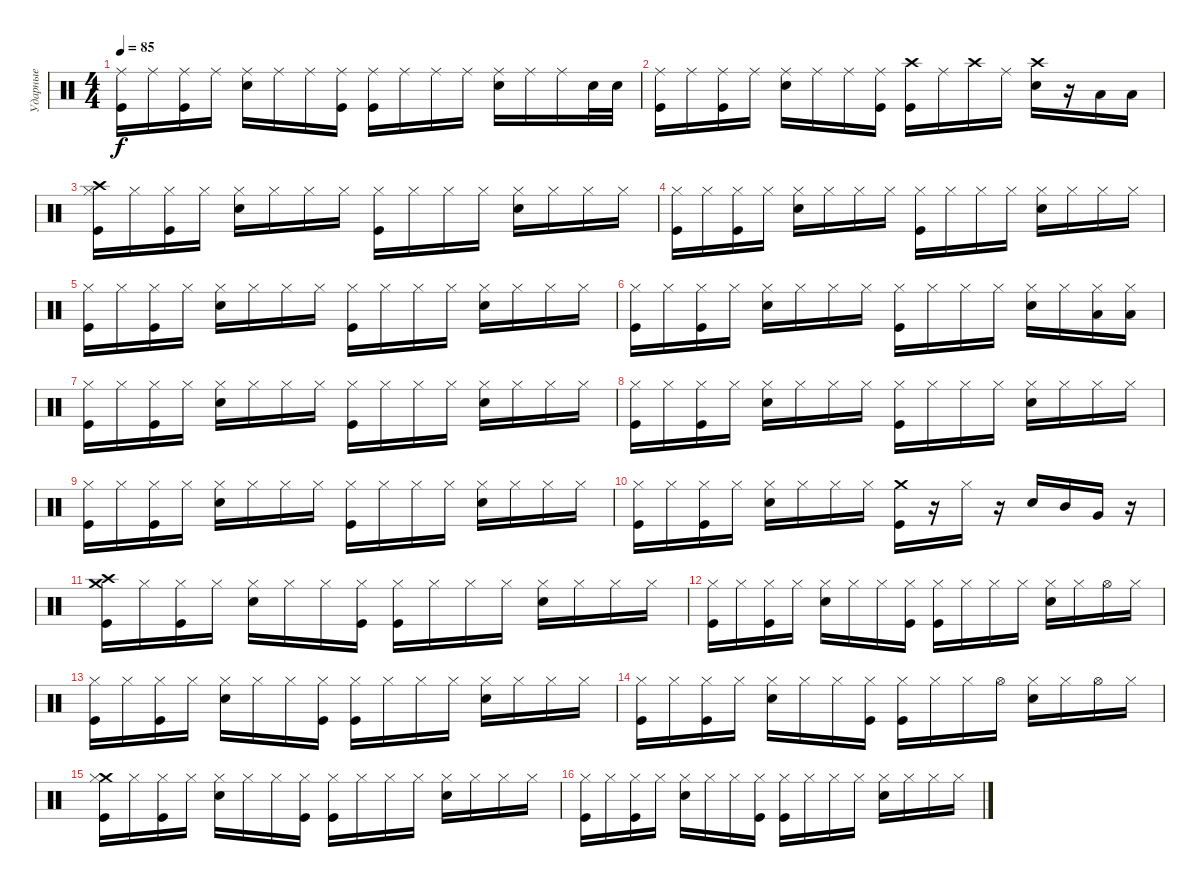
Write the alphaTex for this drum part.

\track ("Ударные" "Ударные") {instrument percussion}
\staff {score}
\articulation defaults
\ts (4 4)
\tempo 85
\clef neutral
\ks c
("Ride (middle)" "Kick (hit)").16{dy f} "Ride (middle)".16 ("Ride (middle)" "Kick (hit)").16 "Ride (middle)".16 ("Ride (middle)" "Electric Snare (hit)").16 "Ride (middle)".16 "Ride (middle)".16 ("Ride (middle)" "Kick (hit)").16 ("Ride (middle)" "Kick (hit)").16 "Ride (middle)".16 "Ride (middle)".16 "Ride (middle)".16 ("Ride (middle)" "Electric Snare (hit)").16 "Ride (middle)".16 "Ride (middle)".16 "Electric Snare (hit)".32 "Electric Snare (hit)".32 |
("Ride (middle)" "Kick (hit)").16 "Ride (middle)".16 ("Ride (middle)" "Kick (hit)").16 "Ride (middle)".16 ("Ride (middle)" "Electric Snare (hit)").16 "Ride (middle)".16 "Ride (middle)".16 ("Ride (middle)" "Kick (hit)").16 ("Crash high (hit)" "Kick (hit)").16 "Ride (middle)".16 "Crash high (hit)".16 "Ride (middle)".16 ("Crash high (hit)" "Electric Snare (hit)").16 r.16 "Low Floor Tom (hit)".16 "Low Floor Tom (hit)".16 |
("Crash high (hit)" "Hi-Hat (closed)" "Kick (hit)").16 "Hi-Hat (closed)".16 ("Hi-Hat (closed)" "Kick (hit)").16 "Hi-Hat (closed)".16 ("Hi-Hat (closed)" "Electric Snare (hit)").16 "Hi-Hat (closed)".16 "Hi-Hat (closed)".16 "Hi-Hat (closed)".16 ("Hi-Hat (closed)" "Kick (hit)").16 "Hi-Hat (closed)".16 "Hi-Hat (closed)".16 "Hi-Hat (closed)".16 ("Hi-Hat (closed)" "Electric Snare (hit)").16 "Hi-Hat (closed)".16 "Hi-Hat (closed)".16 "Hi-Hat (closed)".16 |
("Hi-Hat (closed)" "Kick (hit)").16 "Hi-Hat (closed)".16 ("Hi-Hat (closed)" "Kick (hit)").16 "Hi-Hat (closed)".16 ("Hi-Hat (closed)" "Electric Snare (hit)").16 "Hi-Hat (closed)".16 "Hi-Hat (closed)".16 "Hi-Hat (closed)".16 ("Hi-Hat (closed)" "Kick (hit)").16 "Hi-Hat (closed)".16 "Hi-Hat (closed)".16 "Hi-Hat (closed)".16 ("Hi-Hat (closed)" "Electric Snare (hit)").16 "Hi-Hat (closed)".16 "Hi-Hat (closed)".16 "Hi-Hat (closed)".16 |
("Hi-Hat (closed)" "Kick (hit)").16 "Hi-Hat (closed)".16 ("Hi-Hat (closed)" "Kick (hit)").16 "Hi-Hat (closed)".16 ("Hi-Hat (closed)" "Electric Snare (hit)").16 "Hi-Hat (closed)".16 "Hi-Hat (closed)".16 "Hi-Hat (closed)".16 ("Hi-Hat (closed)" "Kick (hit)").16 "Hi-Hat (closed)".16 "Hi-Hat (closed)".16 "Hi-Hat (closed)".16 ("Hi-Hat (closed)" "Electric Snare (hit)").16 "Hi-Hat (closed)".16 "Hi-Hat (closed)".16 "Hi-Hat (closed)".16 |
("Hi-Hat (closed)" "Kick (hit)").16 "Hi-Hat (closed)".16 ("Hi-Hat (closed)" "Kick (hit)").16 "Hi-Hat (closed)".16 ("Hi-Hat (closed)" "Electric Snare (hit)").16 "Hi-Hat (closed)".16 "Hi-Hat (closed)".16 "Hi-Hat (closed)".16 ("Hi-Hat (closed)" "Kick (hit)").16 "Hi-Hat (closed)".16 "Hi-Hat (closed)".16 "Hi-Hat (closed)".16 ("Hi-Hat (closed)" "Electric Snare (hit)").16 "Hi-Hat (closed)".16 ("Hi-Hat (closed)" "Low Floor Tom (hit)").16 ("Hi-Hat (closed)" "Low Floor Tom (hit)").16 |
("Hi-Hat (closed)" "Kick (hit)").16 "Hi-Hat (closed)".16 ("Hi-Hat (closed)" "Kick (hit)").16 "Hi-Hat (closed)".16 ("Hi-Hat (closed)" "Electric Snare (hit)").16 "Hi-Hat (closed)".16 "Hi-Hat (closed)".16 "Hi-Hat (closed)".16 ("Hi-Hat (closed)" "Kick (hit)").16 "Hi-Hat (closed)".16 "Hi-Hat (closed)".16 "Hi-Hat (closed)".16 ("Hi-Hat (closed)" "Electric Snare (hit)").16 "Hi-Hat (closed)".16 "Hi-Hat (closed)".16 "Hi-Hat (closed)".16 |
("Hi-Hat (closed)" "Kick (hit)").16 "Hi-Hat (closed)".16 ("Hi-Hat (closed)" "Kick (hit)").16 "Hi-Hat (closed)".16 ("Hi-Hat (closed)" "Electric Snare (hit)").16 "Hi-Hat (closed)".16 "Hi-Hat (closed)".16 "Hi-Hat (closed)".16 ("Hi-Hat (closed)" "Kick (hit)").16 "Hi-Hat (closed)".16 "Hi-Hat (closed)".16 "Hi-Hat (closed)".16 ("Hi-Hat (closed)" "Electric Snare (hit)").16 "Hi-Hat (closed)".16 "Hi-Hat (closed)".16 "Hi-Hat (closed)".16 |
("Hi-Hat (closed)" "Kick (hit)").16 "Hi-Hat (closed)".16 ("Hi-Hat (closed)" "Kick (hit)").16 "Hi-Hat (closed)".16 ("Hi-Hat (closed)" "Electric Snare (hit)").16 "Hi-Hat (closed)".16 "Hi-Hat (closed)".16 "Hi-Hat (closed)".16 ("Hi-Hat (closed)" "Kick (hit)").16 "Hi-Hat (closed)".16 "Hi-Hat (closed)".16 "Hi-Hat (closed)".16 ("Hi-Hat (closed)" "Electric Snare (hit)").16 "Hi-Hat (closed)".16 "Hi-Hat (closed)".16 "Hi-Hat (closed)".16 |
("Hi-Hat (closed)" "Kick (hit)").16 "Hi-Hat (closed)".16 ("Hi-Hat (closed)" "Kick (hit)").16 "Hi-Hat (closed)".16 ("Hi-Hat (closed)" "Electric Snare (hit)").16 "Hi-Hat (closed)".16 "Hi-Hat (closed)".16 "Hi-Hat (closed)".16 ("Crash medium (hit)" "Kick (hit)").16 r.16 "Hi-Hat (closed)".16 r.16 "Electric Snare (hit)".16 "Mid Tom (hit)".16 "Very Low Tom (hit)".16 r.16 |
("Crash high (hit)" "Crash medium (hit)" "Kick (hit)").16 "Hi-Hat (closed)".16 ("Hi-Hat (closed)" "Kick (hit)").16 "Hi-Hat (closed)".16 ("Hi-Hat (closed)" "Electric Snare (hit)").16 "Hi-Hat (closed)".16 "Hi-Hat (closed)".16 ("Hi-Hat (closed)" "Kick (hit)").16 ("Hi-Hat (closed)" "Kick (hit)").16 "Hi-Hat (closed)".16 "Hi-Hat (closed)".16 "Hi-Hat (closed)".16 ("Hi-Hat (closed)" "Electric Snare (hit)").16 "Hi-Hat (closed)".16 "Hi-Hat (closed)".16 "Hi-Hat (closed)".16 |
("Hi-Hat (closed)" "Kick (hit)").16 "Hi-Hat (closed)".16 ("Hi-Hat (closed)" "Kick (hit)").16 "Hi-Hat (closed)".16 ("Hi-Hat (closed)" "Electric Snare (hit)").16 "Hi-Hat (closed)".16 "Hi-Hat (closed)".16 ("Hi-Hat (closed)" "Kick (hit)").16 ("Hi-Hat (closed)" "Kick (hit)").16 "Hi-Hat (closed)".16 "Hi-Hat (closed)".16 "Hi-Hat (closed)".16 ("Hi-Hat (closed)" "Electric Snare (hit)").16 "Hi-Hat (closed)".16 "Hi-Hat (open)".16 "Hi-Hat (closed)".16 |
("Hi-Hat (closed)" "Kick (hit)").16 "Hi-Hat (closed)".16 ("Hi-Hat (closed)" "Kick (hit)").16 "Hi-Hat (closed)".16 ("Hi-Hat (closed)" "Electric Snare (hit)").16 "Hi-Hat (closed)".16 "Hi-Hat (closed)".16 ("Hi-Hat (closed)" "Kick (hit)").16 ("Hi-Hat (closed)" "Kick (hit)").16 "Hi-Hat (closed)".16 "Hi-Hat (closed)".16 "Hi-Hat (closed)".16 ("Hi-Hat (closed)" "Electric Snare (hit)").16 "Hi-Hat (closed)".16 "Hi-Hat (closed)".16 "Hi-Hat (closed)".16 |
("Hi-Hat (closed)" "Kick (hit)").16 "Hi-Hat (closed)".16 ("Hi-Hat (closed)" "Kick (hit)").16 "Hi-Hat (closed)".16 ("Hi-Hat (closed)" "Electric Snare (hit)").16 "Hi-Hat (closed)".16 "Hi-Hat (closed)".16 ("Hi-Hat (closed)" "Kick (hit)").16 ("Hi-Hat (closed)" "Kick (hit)").16 "Hi-Hat (closed)".16 "Hi-Hat (closed)".16 "Hi-Hat (open)".16 ("Hi-Hat (closed)" "Electric Snare (hit)").16 "Hi-Hat (closed)".16 "Hi-Hat (open)".16 "Hi-Hat (closed)".16 |
("Crash medium (hit)" "Hi-Hat (closed)" "Kick (hit)").16 "Hi-Hat (closed)".16 ("Hi-Hat (closed)" "Kick (hit)").16 "Hi-Hat (closed)".16 ("Hi-Hat (closed)" "Electric Snare (hit)").16 "Hi-Hat (closed)".16 "Hi-Hat (closed)".16 ("Hi-Hat (closed)" "Kick (hit)").16 ("Hi-Hat (closed)" "Kick (hit)").16 "Hi-Hat (closed)".16 "Hi-Hat (closed)".16 "Hi-Hat (closed)".16 ("Hi-Hat (closed)" "Electric Snare (hit)").16 "Hi-Hat (closed)".16 "Hi-Hat (closed)".16 "Hi-Hat (closed)".16 |
("Hi-Hat (closed)" "Kick (hit)").16 "Hi-Hat (closed)".16 ("Hi-Hat (closed)" "Kick (hit)").16 "Hi-Hat (closed)".16 ("Hi-Hat (closed)" "Electric Snare (hit)").16 "Hi-Hat (closed)".16 "Hi-Hat (closed)".16 ("Hi-Hat (closed)" "Kick (hit)").16 ("Hi-Hat (closed)" "Kick (hit)").16 "Hi-Hat (closed)".16 "Hi-Hat (closed)".16 "Hi-Hat (closed)".16 ("Hi-Hat (closed)" "Electric Snare (hit)").16 "Hi-Hat (closed)".16 "Hi-Hat (closed)".16 "Hi-Hat (closed)".16
